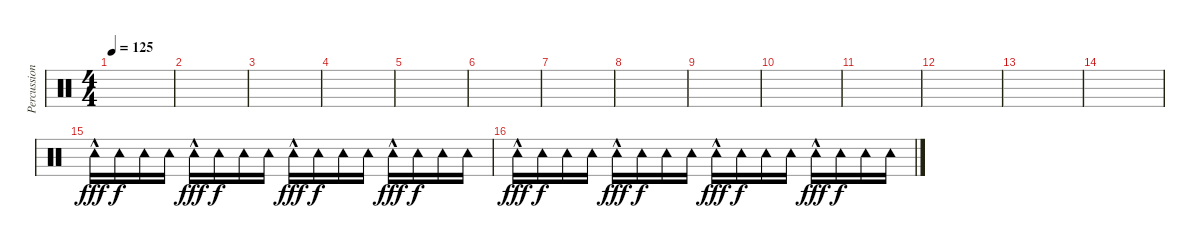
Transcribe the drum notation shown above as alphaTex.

\track ("Percussion" "Percussion") {instrument percussion}
\staff {score}
\articulation defaults
\ts (4 4)
\tempo 125
\clef neutral
\ks c
|
|
|
|
|
|
|
|
|
|
|
|
|
|
"Tambourine (hit)"{hac}.16{dy fff} "Tambourine (hit)".16{dy f} "Tambourine (hit)".16 "Tambourine (hit)".16 "Tambourine (hit)"{hac}.16{dy fff} "Tambourine (hit)".16{dy f} "Tambourine (hit)".16 "Tambourine (hit)".16 "Tambourine (hit)"{hac}.16{dy fff} "Tambourine (hit)".16{dy f} "Tambourine (hit)".16 "Tambourine (hit)".16 "Tambourine (hit)"{hac}.16{dy fff} "Tambourine (hit)".16{dy f} "Tambourine (hit)".16 "Tambourine (hit)".16 |
"Tambourine (hit)"{hac}.16{dy fff} "Tambourine (hit)".16{dy f} "Tambourine (hit)".16 "Tambourine (hit)".16 "Tambourine (hit)"{hac}.16{dy fff} "Tambourine (hit)".16{dy f} "Tambourine (hit)".16 "Tambourine (hit)".16 "Tambourine (hit)"{hac}.16{dy fff} "Tambourine (hit)".16{dy f} "Tambourine (hit)".16 "Tambourine (hit)".16 "Tambourine (hit)"{hac}.16{dy fff} "Tambourine (hit)".16{dy f} "Tambourine (hit)".16 "Tambourine (hit)".16
